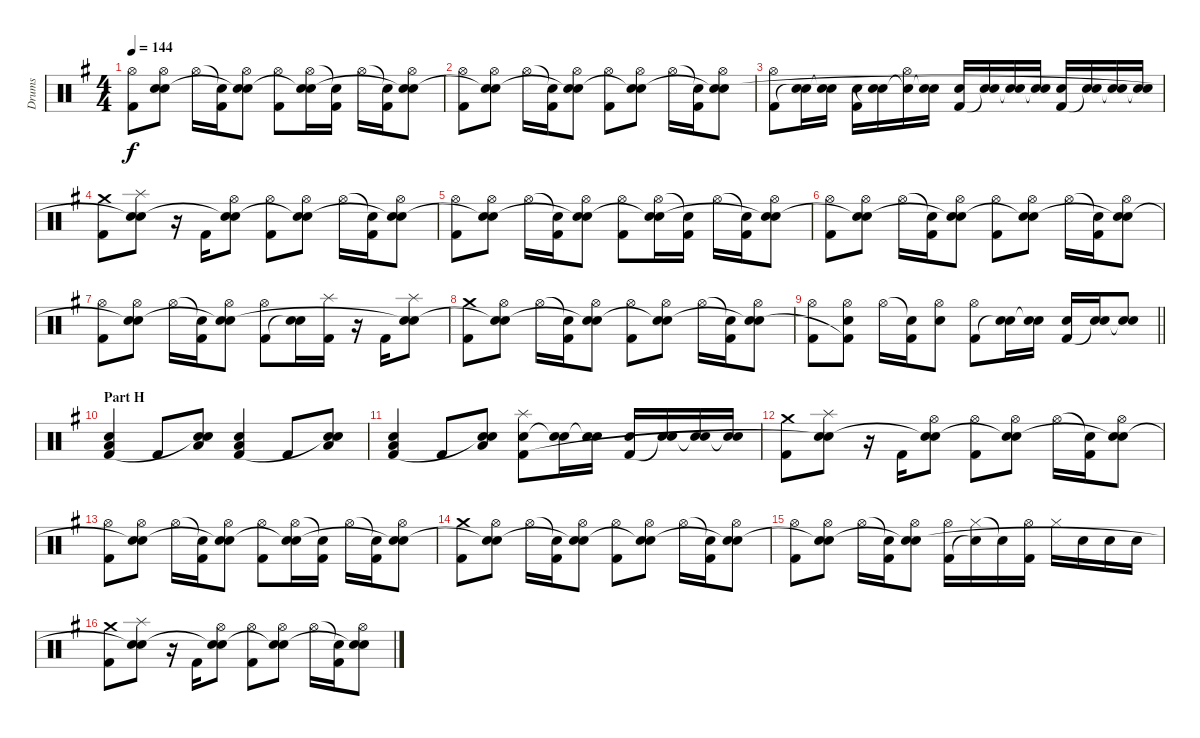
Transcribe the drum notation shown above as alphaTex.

\track ("Drums" "Drums") {instrument percussion}
\staff {score}
\articulation defaults
\ts (4 4)
\tempo 144
\clef neutral
\ks g
("Hi-Hat (open)" "Kick (hit) 2").8{dy f} ("Hi-Hat (open)" "Electric Snare (hit)" "Snare (hit)"{t}).8 "Hi-Hat (open)".16 ("Snare (hit)"{t} "Kick (hit) 2").16 ("Hi-Hat (open)" "Electric Snare (hit)" "Snare (hit)"{t}).8 ("Hi-Hat (open)" "Kick (hit) 2").8 ("Hi-Hat (open)" "Electric Snare (hit)" "Snare (hit)"{t}).16 ("Snare (hit)"{t} "Kick (hit) 2").16 "Hi-Hat (open)".16 ("Snare (hit)"{t} "Kick (hit) 2").16 ("Hi-Hat (open)" "Electric Snare (hit)" "Snare (hit)"{t}).8 |
("Hi-Hat (open)" "Kick (hit) 2").8 ("Hi-Hat (open)" "Electric Snare (hit)" "Snare (hit)"{t}).8 "Hi-Hat (open)".16 ("Snare (hit)"{t} "Kick (hit) 2").16 ("Hi-Hat (open)" "Electric Snare (hit)" "Snare (hit)"{t}).8 ("Hi-Hat (open)" "Kick (hit) 2").8 ("Hi-Hat (open)" "Electric Snare (hit)" "Snare (hit)"{t}).8 "Hi-Hat (open)".16 ("Snare (hit)"{t} "Kick (hit) 2").16 ("Hi-Hat (open)" "Electric Snare (hit)" "Snare (hit)"{t}).8 |
("Hi-Hat (open)" "Kick (hit) 2").8 ("Electric Snare (hit)" "Snare (hit)"{t}).16 ("Electric Snare (hit)" "Snare (hit)"{t}).16 ("Electric Snare (hit)" "Kick (hit) 2").16 ("Electric Snare (hit)" "Snare (hit)"{t}).16 ("Hi-Hat (open)" "Snare (hit)"{t}).16 ("Electric Snare (hit)" "Snare (hit)"{t}).16 ("Electric Snare (hit)" "Kick (hit) 2").16 ("Electric Snare (hit)" "Snare (hit)"{t}).16 ("Electric Snare (hit)" "Snare (hit)"{t}).16 ("Electric Snare (hit)" "Snare (hit)"{t}).16 ("Electric Snare (hit)" "Kick (hit) 2").16 ("Electric Snare (hit)" "Snare (hit)"{t}).16 ("Electric Snare (hit)" "Snare (hit)"{t}).16 ("Electric Snare (hit)" "Snare (hit)"{t}).16 |
("Crash medium (hit)" "Kick (hit) 2").8 ("Splash (hit)" "Electric Snare (hit)" "Snare (hit)"{t}).8 r.16 "Kick (hit) 2".16 ("Hi-Hat (open)" "Electric Snare (hit)" "Snare (hit)"{t}).8 ("Hi-Hat (open)" "Kick (hit) 2").8 ("Hi-Hat (open)" "Electric Snare (hit)" "Snare (hit)"{t}).8 "Hi-Hat (open)".16 ("Snare (hit)"{t} "Kick (hit) 2").16 ("Hi-Hat (open)" "Electric Snare (hit)" "Snare (hit)"{t}).8 |
("Hi-Hat (open)" "Kick (hit) 2").8 ("Hi-Hat (open)" "Electric Snare (hit)" "Snare (hit)"{t}).8 "Hi-Hat (open)".16 ("Snare (hit)"{t} "Kick (hit) 2").16 ("Hi-Hat (open)" "Electric Snare (hit)" "Snare (hit)"{t}).8 ("Hi-Hat (open)" "Kick (hit) 2").8 ("Hi-Hat (open)" "Electric Snare (hit)" "Snare (hit)"{t}).16 ("Snare (hit)"{t} "Kick (hit) 2").16 "Hi-Hat (open)".16 ("Snare (hit)"{t} "Kick (hit) 2").16 ("Hi-Hat (open)" "Electric Snare (hit)" "Snare (hit)"{t}).8 |
("Hi-Hat (open)" "Kick (hit) 2").8 ("Hi-Hat (open)" "Electric Snare (hit)" "Snare (hit)"{t}).8 "Hi-Hat (open)".16 ("Snare (hit)"{t} "Kick (hit) 2").16 ("Hi-Hat (open)" "Electric Snare (hit)" "Snare (hit)"{t}).8 ("Hi-Hat (open)" "Kick (hit) 2").8 ("Hi-Hat (open)" "Electric Snare (hit)" "Snare (hit)"{t}).8 "Hi-Hat (open)".16 ("Snare (hit)"{t} "Kick (hit) 2").16 ("Hi-Hat (open)" "Electric Snare (hit)" "Snare (hit)"{t}).8 |
("Hi-Hat (open)" "Kick (hit) 2").8 ("Hi-Hat (open)" "Electric Snare (hit)" "Snare (hit)"{t}).8 "Hi-Hat (open)".16 ("Snare (hit)"{t} "Kick (hit) 2").16 ("Hi-Hat (open)" "Electric Snare (hit)" "Snare (hit)"{t}).8 ("Hi-Hat (open)" "Kick (hit) 2").8 ("Electric Snare (hit)" "Snare (hit)"{t}).16 ("Splash (hit)" "Kick (hit) 2").16 r.16 "Kick (hit) 2".16 ("Splash (hit)" "Electric Snare (hit)" "Snare (hit)"{t}).8 |
("Crash medium (hit)" "Kick (hit) 2").8 ("Hi-Hat (open)" "Electric Snare (hit)" "Snare (hit)"{t}).8 "Hi-Hat (open)".16 ("Snare (hit)"{t} "Kick (hit) 2").16 ("Hi-Hat (open)" "Electric Snare (hit)" "Snare (hit)"{t}).8 ("Hi-Hat (open)" "Kick (hit) 2").8 ("Hi-Hat (open)" "Electric Snare (hit)" "Snare (hit)"{t}).8 "Hi-Hat (open)".16 ("Snare (hit)"{t} "Kick (hit) 2").16 ("Hi-Hat (open)" "Electric Snare (hit)" "Snare (hit)"{t}).8 |
\barLineRight lightlight
("Hi-Hat (open)" "Kick (hit) 2").8 ("Hi-Hat (open)" "Electric Snare (hit)" "Kick (hit) 2"{t}).8 "Hi-Hat (open)".16 ("Snare (hit)"{t} "Kick (hit) 2").16 ("Hi-Hat (open)" "Electric Snare (hit)").8 ("Hi-Hat (open)" "Kick (hit) 2").8 ("Electric Snare (hit)" "Snare (hit)"{t}).16 ("Electric Snare (hit)" "Snare (hit)"{t}).16 ("Electric Snare (hit)" "Kick (hit) 2").16 ("Electric Snare (hit)" "Snare (hit)"{t}).16 ("Electric Snare (hit)" "Snare (hit)"{t}).8 |
\section ("" "Part H")
("Electric Snare (hit)" "Low Floor Tom (hit)" "Kick (hit) 2").4 "Kick (hit) 2".8 ("Electric Snare (hit)" "Low Floor Tom (hit)" "Snare (hit)"{t}).8 ("Electric Snare (hit)" "Low Floor Tom (hit)" "Kick (hit) 2").4 "Kick (hit) 2".8 ("Electric Snare (hit)" "Low Floor Tom (hit)" "Snare (hit)"{t}).8 |
("Electric Snare (hit)" "Low Floor Tom (hit)" "Kick (hit) 2").4 "Kick (hit) 2".8 ("Electric Snare (hit)" "Low Floor Tom (hit)" "Snare (hit)"{t}).8 ("Splash (hit)" "Electric Snare (hit)" "Kick (hit) 2").8 ("Electric Snare (hit)" "Snare (hit)"{t}).16 ("Electric Snare (hit)" "Snare (hit)"{t}).16 ("Electric Snare (hit)" "Kick (hit) 2").16 ("Electric Snare (hit)" "Snare (hit)"{t}).16 ("Electric Snare (hit)" "Snare (hit)"{t}).16 ("Electric Snare (hit)" "Snare (hit)"{t}).16 |
("Crash medium (hit)" "Kick (hit) 2").8 ("Splash (hit)" "Electric Snare (hit)" "Snare (hit)"{t}).8 r.16 "Kick (hit) 2".16 ("Hi-Hat (open)" "Electric Snare (hit)" "Snare (hit)"{t}).8 ("Hi-Hat (open)" "Kick (hit) 2").8 ("Hi-Hat (open)" "Electric Snare (hit)" "Snare (hit)"{t}).8 "Hi-Hat (open)".16 ("Snare (hit)"{t} "Kick (hit) 2").16 ("Hi-Hat (open)" "Electric Snare (hit)" "Snare (hit)"{t}).8 |
("Hi-Hat (open)" "Kick (hit) 2").8 ("Hi-Hat (open)" "Electric Snare (hit)" "Snare (hit)"{t}).8 "Hi-Hat (open)".16 ("Snare (hit)"{t} "Kick (hit) 2").16 ("Hi-Hat (open)" "Electric Snare (hit)" "Snare (hit)"{t}).8 ("Hi-Hat (open)" "Kick (hit) 2").8 ("Hi-Hat (open)" "Electric Snare (hit)" "Snare (hit)"{t}).16 ("Snare (hit)"{t} "Kick (hit) 2").16 "Hi-Hat (open)".16 ("Snare (hit)"{t} "Kick (hit) 2").16 ("Hi-Hat (open)" "Electric Snare (hit)" "Snare (hit)"{t}).8 |
("Crash medium (hit)" "Kick (hit) 2").8 ("Hi-Hat (open)" "Electric Snare (hit)" "Snare (hit)"{t}).8 "Hi-Hat (open)".16 ("Snare (hit)"{t} "Kick (hit) 2").16 ("Hi-Hat (open)" "Electric Snare (hit)" "Snare (hit)"{t}).8 ("Hi-Hat (open)" "Kick (hit) 2").8 ("Hi-Hat (open)" "Electric Snare (hit)" "Snare (hit)"{t}).8 "Hi-Hat (open)".16 ("Snare (hit)"{t} "Kick (hit) 2").16 ("Hi-Hat (open)" "Electric Snare (hit)" "Snare (hit)"{t}).8 |
("Hi-Hat (open)" "Kick (hit) 2").8 ("Hi-Hat (open)" "Electric Snare (hit)" "Snare (hit)"{t}).8 "Hi-Hat (open)".16 ("Snare (hit)"{t} "Kick (hit) 2").16 ("Hi-Hat (open)" "Electric Snare (hit)" "Snare (hit)"{t}).8 ("Hi-Hat (open)" "Kick (hit) 2").16 ("Hi-Hat (closed)" "Snare (hit)"{t}).16 "Snare (hit)"{t}.16 ("Hi-Hat (open)" "Kick (hit) 2").16 "Hi-Hat (closed)".16 "Electric Snare (hit)".16 "Electric Snare (hit)".16 "Electric Snare (hit)".16 |
("Crash medium (hit)" "Kick (hit) 2").8 ("Splash (hit)" "Electric Snare (hit)" "Snare (hit)"{t}).8 r.16 "Kick (hit) 2".16 ("Hi-Hat (open)" "Electric Snare (hit)" "Snare (hit)"{t}).8 ("Hi-Hat (open)" "Kick (hit) 2").8 ("Hi-Hat (open)" "Electric Snare (hit)" "Snare (hit)"{t}).8 "Hi-Hat (open)".16 ("Snare (hit)"{t} "Kick (hit) 2").16 ("Hi-Hat (open)" "Electric Snare (hit)" "Snare (hit)"{t}).8
